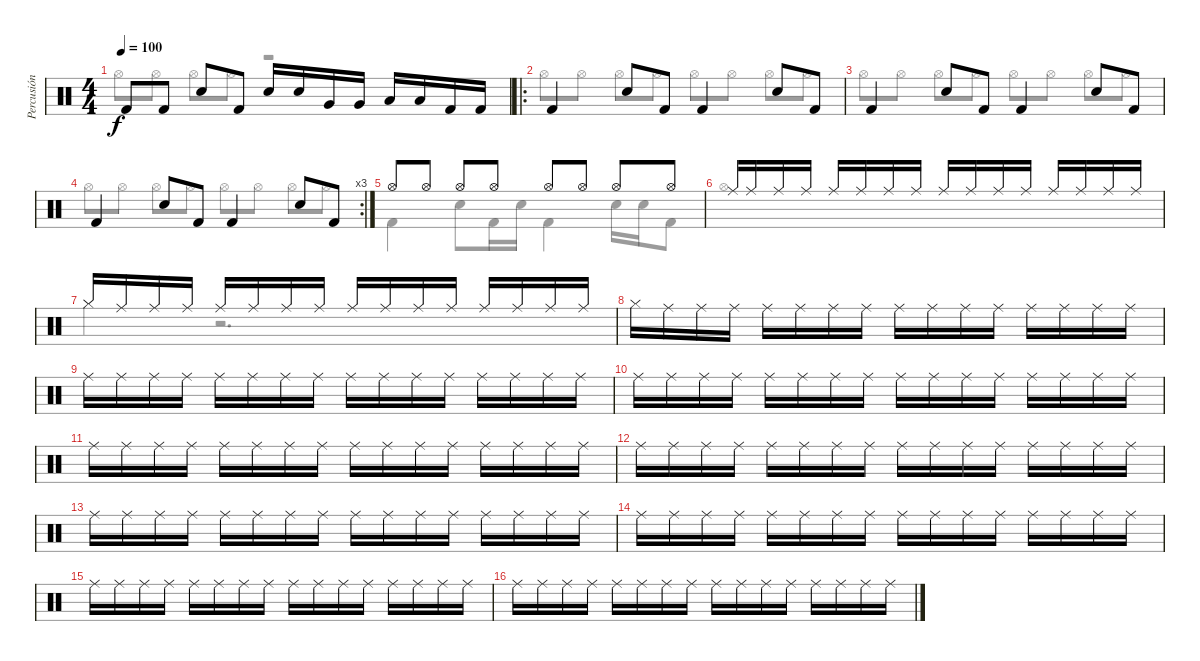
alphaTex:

\track ("Percusión" "Percusión") {instrument percussion}
\staff {score}
\articulation defaults
\voice
\ts (4 4)
\tempo 100
\clef neutral
\ks c "Kick (hit) 2".8{dy f} "Kick (hit) 2".8 "Electric Snare (hit)".8 "Kick (hit) 2".8 "Electric Snare (hit)".16 "Electric Snare (hit)".16 "Very Low Tom (hit)".16 "Very Low Tom (hit)".16 "Low Floor Tom (hit)".16 "Low Floor Tom (hit)".16 "Kick (hit) 2".16 "Kick (hit) 2".16
|
\ro "Kick (hit) 2".4 "Electric Snare (hit)".8 "Kick (hit) 2".8 "Kick (hit) 2".4 "Electric Snare (hit)".8 "Kick (hit) 2".8
|
"Kick (hit) 2".4 "Electric Snare (hit)".8 "Kick (hit) 2".8 "Kick (hit) 2".4 "Electric Snare (hit)".8 "Kick (hit) 2".8 |
\rc 3 "Kick (hit) 2".4 "Electric Snare (hit)".8 "Kick (hit) 2".8 "Kick (hit) 2".4 "Electric Snare (hit)".8 "Kick (hit) 2".8
|
"Hi-Hat (open)".8 "Hi-Hat (open)".8 "Hi-Hat (open)".8 "Hi-Hat (open)".8 "Hi-Hat (open)".8 "Hi-Hat (open)".8 "Hi-Hat (open)".8 "Hi-Hat (open)".8 |
"Ride (middle)".16{volume 3} "Ride (middle)".16 "Ride (middle)".16 "Ride (middle)".16 "Ride (middle)".16 "Ride (middle)".16 "Ride (middle)".16 "Ride (middle)".16 "Ride (middle)".16 "Ride (middle)".16 "Ride (middle)".16 "Ride (middle)".16 "Ride (middle)".16 "Ride (middle)".16 "Ride (middle)".16 "Ride (middle)".16 |
"Hi-Hat (closed)".16 "Ride (middle)".16 "Ride (middle)".16 "Ride (middle)".16 "Ride (middle)".16 "Ride (middle)".16 "Ride (middle)".16 "Ride (middle)".16 "Ride (middle)".16 "Ride (middle)".16 "Ride (middle)".16 "Ride (middle)".16 "Ride (middle)".16 "Ride (middle)".16 "Ride (middle)".16 "Ride (middle)".16 |
"Hi-Hat (closed)".16 "Ride (middle)".16 "Ride (middle)".16 "Ride (middle)".16 "Ride (middle)".16 "Ride (middle)".16 "Ride (middle)".16 "Ride (middle)".16 "Ride (middle)".16 "Ride (middle)".16 "Ride (middle)".16 "Ride (middle)".16 "Ride (middle)".16 "Ride (middle)".16 "Ride (middle)".16 "Ride (middle)".16 |
"Ride (middle)".16 "Ride (middle)".16 "Ride (middle)".16 "Ride (middle)".16 "Ride (middle)".16 "Ride (middle)".16 "Ride (middle)".16 "Ride (middle)".16 "Ride (middle)".16 "Ride (middle)".16 "Ride (middle)".16 "Ride (middle)".16 "Ride (middle)".16 "Ride (middle)".16 "Ride (middle)".16 "Ride (middle)".16 |
"Ride (middle)".16 "Ride (middle)".16 "Ride (middle)".16 "Ride (middle)".16 "Ride (middle)".16 "Ride (middle)".16 "Ride (middle)".16 "Ride (middle)".16 "Ride (middle)".16 "Ride (middle)".16 "Ride (middle)".16 "Ride (middle)".16 "Ride (middle)".16 "Ride (middle)".16 "Ride (middle)".16 "Ride (middle)".16 |
"Ride (middle)".16 "Ride (middle)".16 "Ride (middle)".16 "Ride (middle)".16 "Ride (middle)".16 "Ride (middle)".16 "Ride (middle)".16 "Ride (middle)".16 "Ride (middle)".16 "Ride (middle)".16 "Ride (middle)".16 "Ride (middle)".16 "Ride (middle)".16 "Ride (middle)".16 "Ride (middle)".16 "Ride (middle)".16 |
"Ride (middle)".16 "Ride (middle)".16 "Ride (middle)".16 "Ride (middle)".16 "Ride (middle)".16 "Ride (middle)".16 "Ride (middle)".16 "Ride (middle)".16 "Ride (middle)".16 "Ride (middle)".16 "Ride (middle)".16 "Ride (middle)".16 "Ride (middle)".16 "Ride (middle)".16 "Ride (middle)".16 "Ride (middle)".16 |
"Ride (middle)".16 "Ride (middle)".16 "Ride (middle)".16 "Ride (middle)".16 "Ride (middle)".16 "Ride (middle)".16 "Ride (middle)".16 "Ride (middle)".16 "Ride (middle)".16 "Ride (middle)".16 "Ride (middle)".16 "Ride (middle)".16 "Ride (middle)".16 "Ride (middle)".16 "Ride (middle)".16 "Ride (middle)".16 |
"Ride (middle)".16 "Ride (middle)".16 "Ride (middle)".16 "Ride (middle)".16 "Ride (middle)".16 "Ride (middle)".16 "Ride (middle)".16 "Ride (middle)".16 "Ride (middle)".16 "Ride (middle)".16 "Ride (middle)".16 "Ride (middle)".16 "Ride (middle)".16 "Ride (middle)".16 "Ride (middle)".16 "Ride (middle)".16 |
"Ride (middle)".16 "Ride (middle)".16 "Ride (middle)".16 "Ride (middle)".16 "Ride (middle)".16 "Ride (middle)".16 "Ride (middle)".16 "Ride (middle)".16 "Ride (middle)".16 "Ride (middle)".16 "Ride (middle)".16 "Ride (middle)".16 "Ride (middle)".16 "Ride (middle)".16 "Ride (middle)".16 "Ride (middle)".16 |
"Ride (middle)".16 "Ride (middle)".16 "Ride (middle)".16 "Ride (middle)".16 "Ride (middle)".16 "Ride (middle)".16 "Ride (middle)".16 "Ride (middle)".16 "Ride (middle)".16 "Ride (middle)".16 "Ride (middle)".16 "Ride (middle)".16 "Ride (middle)".16 "Ride (middle)".16 "Ride (middle)".16 "Ride (middle)".16
\voice
\clef neutral
\ottava regular
\simile none
\ks c "Hi-Hat (open)".8{dy f} "Hi-Hat (open)".8 "Hi-Hat (open)".8 "Hi-Hat (open)".8
r.2 |
"Hi-Hat (open)".8 "Hi-Hat (open)".8 "Hi-Hat (open)".8 "Hi-Hat (open)".8 "Hi-Hat (open)".8 "Hi-Hat (open)".8 "Hi-Hat (open)".8 "Hi-Hat (open)".8 |
"Hi-Hat (open)".8 "Hi-Hat (open)".8 "Hi-Hat (open)".8 "Hi-Hat (open)".8 "Hi-Hat (open)".8 "Hi-Hat (open)".8 "Hi-Hat (open)".8 "Hi-Hat (open)".8 |
"Hi-Hat (open)".8 "Hi-Hat (open)".8 "Hi-Hat (open)".8 "Hi-Hat (open)".8 "Hi-Hat (open)".8 "Hi-Hat (open)".8 "Hi-Hat (open)".8 "Hi-Hat (open)".8 |
"Kick (hit) 2".4 "Electric Snare (hit)".8 "Kick (hit) 2".16 "Electric Snare (hit)".16 "Kick (hit) 2".4 "Electric Snare (hit)".16 "Electric Snare (hit)".16 "Kick (hit) 2".8 |
"Hi-Hat (open)".1 |
"Hi-Hat (closed)".4 r.2{d} |
|
|
|
|
|
|
|
|
